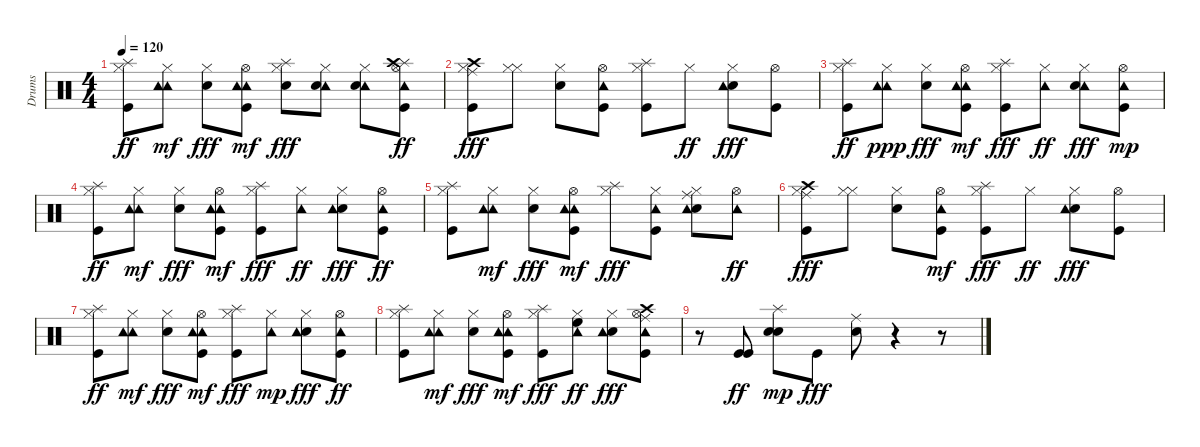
\track ("Drums " "Drums ") {instrument percussion}
\staff {score}
\articulation defaults
\ts (4 4)
\tempo 120
\clef neutral
\ks c
("Hi-Hat (closed)" "Kick (hit)" "Splash (hit)").8{dy ff} ("Tambourine (hit)" "Hi-Hat (closed)" "Tambourine (hit)").8{dy mf} ("Hi-Hat (closed)" "Electric Snare (hit)").8{dy fff} ("Tambourine (hit)" "Kick (hit)" "Tambourine (hit)" "Hi-Hat (open)").8{dy mf} ("Hi-Hat (closed)" "Splash (hit)" "Electric Snare (hit)").8{dy fff} ("Hi-Hat (closed)" "Tambourine (hit)" "Electric Snare (hit)").8 ("Tambourine (hit)" "Hi-Hat (closed)" "Electric Snare (hit)").8 ("Tambourine (hit)" "Hi-Hat (open)" "Kick (hit)" "Splash (hit)" "Crash high (hit)").8{dy ff} |
("Crash high (hit)" "Hi-Hat (closed)" "Kick (hit)" "Ride (middle)").8{dy fff} ("Hi-Hat (closed)" "Hi-Hat (closed)").8 ("Hi-Hat (closed)" "Electric Snare (hit)").8 ("Kick (hit)" "Hi-Hat (open)" "Tambourine (hit)").8 ("Kick (hit)" "Splash (hit)" "Hi-Hat (closed)").8 "Hi-Hat (closed)".8{dy ff} ("Electric Snare (hit)" "Tambourine (hit)" "Hi-Hat (closed)").8{dy fff} ("Hi-Hat (open)" "Kick (hit)").8 |
("Hi-Hat (closed)" "Kick (hit)" "Splash (hit)").8{dy ff} ("Hi-Hat (closed)" "Tambourine (hit)" "Tambourine (hit)").8{dy ppp} ("Hi-Hat (closed)" "Electric Snare (hit)").8{dy fff} ("Tambourine (hit)" "Kick (hit)" "Tambourine (hit)" "Hi-Hat (open)").8{dy mf} ("Splash (hit)" "Hi-Hat (closed)" "Kick (hit)").8{dy fff} ("Tambourine (hit)" "Hi-Hat (closed)").8{dy ff} ("Tambourine (hit)" "Hi-Hat (closed)" "Electric Snare (hit)").8{dy fff} ("Kick (hit)" "Hi-Hat (open)" "Tambourine (hit)").8{dy mp} |
("Hi-Hat (closed)" "Kick (hit)" "Splash (hit)").8{dy ff} ("Tambourine (hit)" "Hi-Hat (closed)" "Tambourine (hit)").8{dy mf} ("Hi-Hat (closed)" "Electric Snare (hit)").8{dy fff} ("Tambourine (hit)" "Kick (hit)" "Tambourine (hit)" "Hi-Hat (open)").8{dy mf} ("Kick (hit)" "Splash (hit)" "Hi-Hat (closed)").8{dy fff} ("Tambourine (hit)" "Hi-Hat (closed)").8{dy ff} ("Electric Snare (hit)" "Tambourine (hit)" "Hi-Hat (closed)").8{dy fff} ("Kick (hit)" "Tambourine (hit)" "Hi-Hat (open)").8{dy ff} |
("Hi-Hat (closed)" "Kick (hit)" "Splash (hit)").8 ("Tambourine (hit)" "Hi-Hat (closed)" "Tambourine (hit)").8{dy mf} ("Hi-Hat (closed)" "Electric Snare (hit)").8{dy fff} ("Kick (hit)" "Tambourine (hit)" "Tambourine (hit)" "Hi-Hat (open)").8{dy mf} ("Splash (hit)" "Hi-Hat (closed)").8{dy fff} ("Hi-Hat (closed)" "Tambourine (hit)" "Kick (hit)").8 ("Hi-Hat (closed)" "Electric Snare (hit)" "Tambourine (hit)" "Ride (middle)").8 ("Tambourine (hit)" "Hi-Hat (open)").8{dy ff} |
("Hi-Hat (closed)" "Kick (hit)" "Crash high (hit)" "Ride (middle)").8{dy fff} ("Hi-Hat (closed)" "Hi-Hat (closed)").8 ("Hi-Hat (closed)" "Electric Snare (hit)").8 ("Kick (hit)" "Tambourine (hit)" "Hi-Hat (open)").8{dy mf} ("Kick (hit)" "Splash (hit)" "Hi-Hat (closed)").8{dy fff} "Hi-Hat (closed)".8{dy ff} ("Electric Snare (hit)" "Tambourine (hit)" "Hi-Hat (closed)").8{dy fff} ("Hi-Hat (open)" "Kick (hit)").8 |
("Hi-Hat (closed)" "Kick (hit)" "Splash (hit)").8{dy ff} ("Tambourine (hit)" "Hi-Hat (closed)" "Tambourine (hit)").8{dy mf} ("Hi-Hat (closed)" "Electric Snare (hit)").8{dy fff} ("Tambourine (hit)" "Kick (hit)" "Tambourine (hit)" "Hi-Hat (open)").8{dy mf} ("Kick (hit)" "Splash (hit)" "Hi-Hat (closed)").8{dy fff} ("Hi-Hat (closed)" "Tambourine (hit)").8{dy mp} ("Electric Snare (hit)" "Tambourine (hit)" "Hi-Hat (closed)").8{dy fff} ("Kick (hit)" "Tambourine (hit)" "Hi-Hat (open)").8{dy ff} |
("Hi-Hat (closed)" "Kick (hit)" "Splash (hit)").8 ("Tambourine (hit)" "Hi-Hat (closed)" "Tambourine (hit)").8{dy mf} ("Electric Snare (hit)" "Hi-Hat (closed)").8{dy fff} ("Tambourine (hit)" "Kick (hit)" "Tambourine (hit)" "Hi-Hat (open)").8{dy mf} ("Splash (hit)" "Hi-Hat (closed)" "Kick (hit)").8{dy fff} ("Tambourine (hit)" "High Floor Tom (hit)" "Hi-Hat (closed)").8{dy ff} ("Electric Snare (hit)" "Tambourine (hit)" "Hi-Hat (closed)").8{dy fff} ("Hi-Hat (open)" "Kick (hit)" "Tambourine (hit)" "Ride (middle)" "Crash high (hit)").8 |
r.8 ("Kick (hit)" "Kick (hit)").8{dy ff} ("Electric Snare (hit)" "Splash (hit)" "Electric Snare (hit)").8{dy mp} "Kick (hit)".8{dy fff} ("Ride (middle)" "Electric Snare (hit)").8 r.4 r.8
